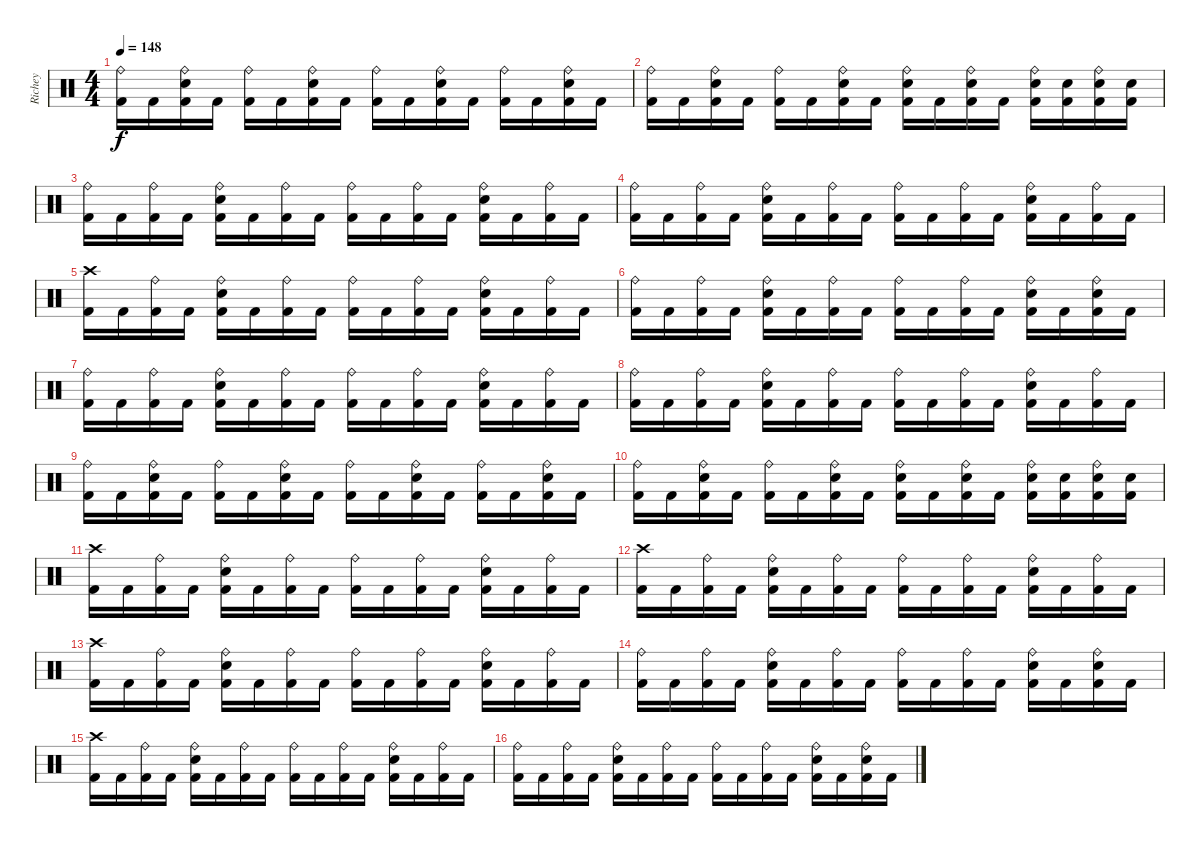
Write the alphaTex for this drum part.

\track ("Richey" "Richey") {instrument percussion}
\staff {score}
\articulation defaults
\ts (4 4)
\tempo 148
\clef neutral
\ks c
("Ride (bell)" "Kick (hit) 2").16{dy f} "Kick (hit) 2".16 ("Ride (bell)" "Snare (hit) 2" "Kick (hit) 2").16 "Kick (hit) 2".16 ("Ride (bell)" "Kick (hit) 2").16 "Kick (hit) 2".16 ("Ride (bell)" "Snare (hit) 2" "Kick (hit) 2").16 "Kick (hit) 2".16 ("Ride (bell)" "Kick (hit) 2").16 "Kick (hit) 2".16 ("Ride (bell)" "Snare (hit) 2" "Kick (hit) 2").16 "Kick (hit) 2".16 ("Ride (bell)" "Kick (hit) 2").16 "Kick (hit) 2".16 ("Ride (bell)" "Snare (hit) 2" "Kick (hit) 2").16 "Kick (hit) 2".16 |
("Ride (bell)" "Kick (hit) 2").16 "Kick (hit) 2".16 ("Ride (bell)" "Snare (hit) 2" "Kick (hit) 2").16 "Kick (hit) 2".16 ("Ride (bell)" "Kick (hit) 2").16 "Kick (hit) 2".16 ("Ride (bell)" "Snare (hit) 2" "Kick (hit) 2").16 "Kick (hit) 2".16 ("Ride (bell)" "Snare (hit) 2" "Kick (hit) 2").16 "Kick (hit) 2".16 ("Ride (bell)" "Snare (hit) 2" "Kick (hit) 2").16 "Kick (hit) 2".16 ("Ride (bell)" "Snare (hit) 2" "Kick (hit) 2").16 ("Snare (hit) 2" "Kick (hit) 2").16 ("Ride (bell)" "Snare (hit) 2" "Kick (hit) 2").16 ("Snare (hit) 2" "Kick (hit) 2").16 |
("Ride (bell)" "Kick (hit) 2").16 "Kick (hit) 2".16 ("Ride (bell)" "Kick (hit) 2").16 "Kick (hit) 2".16 ("Ride (bell)" "Snare (hit) 2" "Kick (hit) 2").16 "Kick (hit) 2".16 ("Ride (bell)" "Kick (hit) 2").16 "Kick (hit) 2".16 ("Ride (bell)" "Kick (hit) 2").16 "Kick (hit) 2".16 ("Ride (bell)" "Kick (hit) 2").16 "Kick (hit) 2".16 ("Ride (bell)" "Snare (hit) 2" "Kick (hit) 2").16 "Kick (hit) 2".16 ("Ride (bell)" "Kick (hit) 2").16 "Kick (hit) 2".16 |
("Ride (bell)" "Kick (hit) 2").16 "Kick (hit) 2".16 ("Ride (bell)" "Kick (hit) 2").16 "Kick (hit) 2".16 ("Ride (bell)" "Snare (hit) 2" "Kick (hit) 2").16 "Kick (hit) 2".16 ("Ride (bell)" "Kick (hit) 2").16 "Kick (hit) 2".16 ("Ride (bell)" "Kick (hit) 2").16 "Kick (hit) 2".16 ("Ride (bell)" "Kick (hit) 2").16 "Kick (hit) 2".16 ("Ride (bell)" "Snare (hit) 2" "Kick (hit) 2").16 "Kick (hit) 2".16 ("Ride (bell)" "Kick (hit) 2").16 "Kick (hit) 2".16 |
("Crash high (hit)" "Kick (hit) 2").16 "Kick (hit) 2".16 ("Ride (bell)" "Kick (hit) 2").16 "Kick (hit) 2".16 ("Ride (bell)" "Snare (hit) 2" "Kick (hit) 2").16 "Kick (hit) 2".16 ("Ride (bell)" "Kick (hit) 2").16 "Kick (hit) 2".16 ("Ride (bell)" "Kick (hit) 2").16 "Kick (hit) 2".16 ("Ride (bell)" "Kick (hit) 2").16 "Kick (hit) 2".16 ("Ride (bell)" "Snare (hit) 2" "Kick (hit) 2").16 "Kick (hit) 2".16 ("Ride (bell)" "Kick (hit) 2").16 "Kick (hit) 2".16 |
("Ride (bell)" "Kick (hit) 2").16 "Kick (hit) 2".16 ("Ride (bell)" "Kick (hit) 2").16 "Kick (hit) 2".16 ("Ride (bell)" "Snare (hit) 2" "Kick (hit) 2").16 "Kick (hit) 2".16 ("Ride (bell)" "Kick (hit) 2").16 "Kick (hit) 2".16 ("Ride (bell)" "Kick (hit) 2").16 "Kick (hit) 2".16 ("Ride (bell)" "Kick (hit) 2").16 "Kick (hit) 2".16 ("Ride (bell)" "Snare (hit) 2" "Kick (hit) 2").16 "Kick (hit) 2".16 ("Ride (bell)" "Snare (hit) 2" "Kick (hit) 2").16 "Kick (hit) 2".16 |
("Ride (bell)" "Kick (hit) 2").16 "Kick (hit) 2".16 ("Ride (bell)" "Kick (hit) 2").16 "Kick (hit) 2".16 ("Ride (bell)" "Snare (hit) 2" "Kick (hit) 2").16 "Kick (hit) 2".16 ("Ride (bell)" "Kick (hit) 2").16 "Kick (hit) 2".16 ("Ride (bell)" "Kick (hit) 2").16 "Kick (hit) 2".16 ("Ride (bell)" "Kick (hit) 2").16 "Kick (hit) 2".16 ("Ride (bell)" "Snare (hit) 2" "Kick (hit) 2").16 "Kick (hit) 2".16 ("Ride (bell)" "Kick (hit) 2").16 "Kick (hit) 2".16 |
("Ride (bell)" "Kick (hit) 2").16 "Kick (hit) 2".16 ("Ride (bell)" "Kick (hit) 2").16 "Kick (hit) 2".16 ("Ride (bell)" "Snare (hit) 2" "Kick (hit) 2").16 "Kick (hit) 2".16 ("Ride (bell)" "Kick (hit) 2").16 "Kick (hit) 2".16 ("Ride (bell)" "Kick (hit) 2").16 "Kick (hit) 2".16 ("Ride (bell)" "Kick (hit) 2").16 "Kick (hit) 2".16 ("Ride (bell)" "Snare (hit) 2" "Kick (hit) 2").16 "Kick (hit) 2".16 ("Ride (bell)" "Kick (hit) 2").16 "Kick (hit) 2".16 |
("Ride (bell)" "Kick (hit) 2").16 "Kick (hit) 2".16 ("Ride (bell)" "Snare (hit) 2" "Kick (hit) 2").16 "Kick (hit) 2".16 ("Ride (bell)" "Kick (hit) 2").16 "Kick (hit) 2".16 ("Ride (bell)" "Snare (hit) 2" "Kick (hit) 2").16 "Kick (hit) 2".16 ("Ride (bell)" "Kick (hit) 2").16 "Kick (hit) 2".16 ("Ride (bell)" "Snare (hit) 2" "Kick (hit) 2").16 "Kick (hit) 2".16 ("Ride (bell)" "Kick (hit) 2").16 "Kick (hit) 2".16 ("Ride (bell)" "Snare (hit) 2" "Kick (hit) 2").16 "Kick (hit) 2".16 |
("Ride (bell)" "Kick (hit) 2").16 "Kick (hit) 2".16 ("Ride (bell)" "Snare (hit) 2" "Kick (hit) 2").16 "Kick (hit) 2".16 ("Ride (bell)" "Kick (hit) 2").16 "Kick (hit) 2".16 ("Ride (bell)" "Snare (hit) 2" "Kick (hit) 2").16 "Kick (hit) 2".16 ("Ride (bell)" "Snare (hit) 2" "Kick (hit) 2").16 "Kick (hit) 2".16 ("Ride (bell)" "Snare (hit) 2" "Kick (hit) 2").16 "Kick (hit) 2".16 ("Ride (bell)" "Snare (hit) 2" "Kick (hit) 2").16 ("Snare (hit) 2" "Kick (hit) 2").16 ("Ride (bell)" "Snare (hit) 2" "Kick (hit) 2").16 ("Snare (hit) 2" "Kick (hit) 2").16 |
("Crash high (hit)" "Kick (hit) 2").16 "Kick (hit) 2".16 ("Ride (bell)" "Kick (hit) 2").16 "Kick (hit) 2".16 ("Ride (bell)" "Snare (hit) 2" "Kick (hit) 2").16 "Kick (hit) 2".16 ("Ride (bell)" "Kick (hit) 2").16 "Kick (hit) 2".16 ("Ride (bell)" "Kick (hit) 2").16 "Kick (hit) 2".16 ("Ride (bell)" "Kick (hit) 2").16 "Kick (hit) 2".16 ("Ride (bell)" "Snare (hit) 2" "Kick (hit) 2").16 "Kick (hit) 2".16 ("Ride (bell)" "Kick (hit) 2").16 "Kick (hit) 2".16 |
("Crash high (hit)" "Kick (hit) 2").16 "Kick (hit) 2".16 ("Ride (bell)" "Kick (hit) 2").16 "Kick (hit) 2".16 ("Ride (bell)" "Snare (hit) 2" "Kick (hit) 2").16 "Kick (hit) 2".16 ("Ride (bell)" "Kick (hit) 2").16 "Kick (hit) 2".16 ("Ride (bell)" "Kick (hit) 2").16 "Kick (hit) 2".16 ("Ride (bell)" "Kick (hit) 2").16 "Kick (hit) 2".16 ("Ride (bell)" "Snare (hit) 2" "Kick (hit) 2").16 "Kick (hit) 2".16 ("Ride (bell)" "Kick (hit) 2").16 "Kick (hit) 2".16 |
("Crash high (hit)" "Kick (hit) 2").16 "Kick (hit) 2".16 ("Ride (bell)" "Kick (hit) 2").16 "Kick (hit) 2".16 ("Ride (bell)" "Snare (hit) 2" "Kick (hit) 2").16 "Kick (hit) 2".16 ("Ride (bell)" "Kick (hit) 2").16 "Kick (hit) 2".16 ("Ride (bell)" "Kick (hit) 2").16 "Kick (hit) 2".16 ("Ride (bell)" "Kick (hit) 2").16 "Kick (hit) 2".16 ("Ride (bell)" "Snare (hit) 2" "Kick (hit) 2").16 "Kick (hit) 2".16 ("Ride (bell)" "Kick (hit) 2").16 "Kick (hit) 2".16 |
("Ride (bell)" "Kick (hit) 2").16 "Kick (hit) 2".16 ("Ride (bell)" "Kick (hit) 2").16 "Kick (hit) 2".16 ("Ride (bell)" "Snare (hit) 2" "Kick (hit) 2").16 "Kick (hit) 2".16 ("Ride (bell)" "Kick (hit) 2").16 "Kick (hit) 2".16 ("Ride (bell)" "Kick (hit) 2").16 "Kick (hit) 2".16 ("Ride (bell)" "Kick (hit) 2").16 "Kick (hit) 2".16 ("Ride (bell)" "Snare (hit) 2" "Kick (hit) 2").16 "Kick (hit) 2".16 ("Ride (bell)" "Snare (hit) 2" "Kick (hit) 2").16 "Kick (hit) 2".16 |
("Crash high (hit)" "Kick (hit) 2").16 "Kick (hit) 2".16 ("Ride (bell)" "Kick (hit) 2").16 "Kick (hit) 2".16 ("Ride (bell)" "Snare (hit) 2" "Kick (hit) 2").16 "Kick (hit) 2".16 ("Ride (bell)" "Kick (hit) 2").16 "Kick (hit) 2".16 ("Ride (bell)" "Kick (hit) 2").16 "Kick (hit) 2".16 ("Ride (bell)" "Kick (hit) 2").16 "Kick (hit) 2".16 ("Ride (bell)" "Snare (hit) 2" "Kick (hit) 2").16 "Kick (hit) 2".16 ("Ride (bell)" "Kick (hit) 2").16 "Kick (hit) 2".16 |
("Ride (bell)" "Kick (hit) 2").16 "Kick (hit) 2".16 ("Ride (bell)" "Kick (hit) 2").16 "Kick (hit) 2".16 ("Ride (bell)" "Snare (hit) 2" "Kick (hit) 2").16 "Kick (hit) 2".16 ("Ride (bell)" "Kick (hit) 2").16 "Kick (hit) 2".16 ("Ride (bell)" "Kick (hit) 2").16 "Kick (hit) 2".16 ("Ride (bell)" "Kick (hit) 2").16 "Kick (hit) 2".16 ("Ride (bell)" "Snare (hit) 2" "Kick (hit) 2").16 "Kick (hit) 2".16 ("Ride (bell)" "Snare (hit) 2" "Kick (hit) 2").16 "Kick (hit) 2".16
